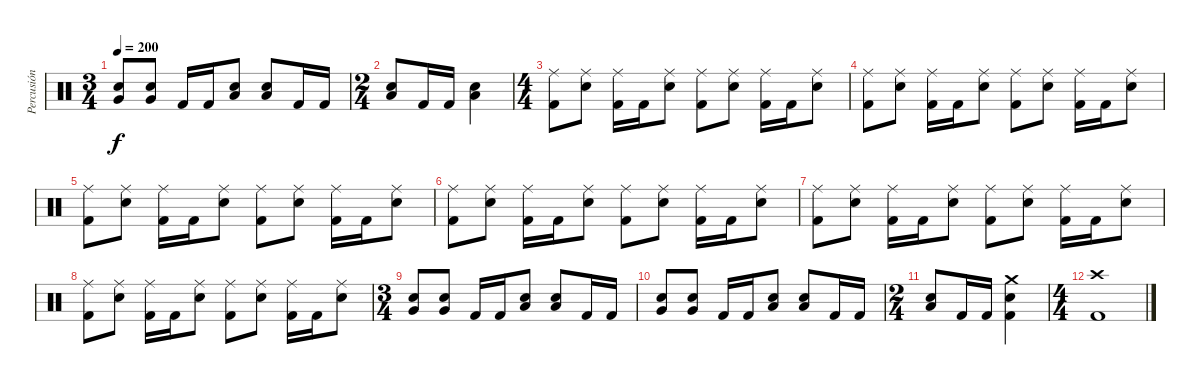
\track ("Percusión" "Percusión") {instrument percussion}
\staff {score}
\articulation defaults
\ts (3 4)
\tempo 200
\clef neutral
\ks c
("Very Low Tom (hit)" "Electric Snare (hit)").8{dy f} ("Very Low Tom (hit)" "Electric Snare (hit)").8 "Kick (hit) 2".16 "Kick (hit) 2".16 ("Low Tom (hit)" "Electric Snare (hit)").8 ("Low Tom (hit)" "Electric Snare (hit)").8 "Kick (hit) 2".16 "Kick (hit) 2".16 |
\ts (2 4)
("Low Tom (hit)" "Electric Snare (hit)").8 "Kick (hit) 2".16 "Kick (hit) 2".16 ("Low Tom (hit)" "Electric Snare (hit)").4 |
\ts (4 4)
("Ride (middle)" "Kick (hit) 2").8 ("Ride (middle)" "Electric Snare (hit)").8 ("Ride (middle)" "Kick (hit) 2").16 "Kick (hit) 2".16 ("Ride (middle)" "Electric Snare (hit)").8 ("Ride (middle)" "Kick (hit) 2").8 ("Ride (middle)" "Electric Snare (hit)").8 ("Ride (middle)" "Kick (hit) 2").16 "Kick (hit) 2".16 ("Ride (middle)" "Electric Snare (hit)").8 |
("Ride (middle)" "Kick (hit) 2").8 ("Ride (middle)" "Electric Snare (hit)").8 ("Ride (middle)" "Kick (hit) 2").16 "Kick (hit) 2".16 ("Ride (middle)" "Electric Snare (hit)").8 ("Ride (middle)" "Kick (hit) 2").8 ("Ride (middle)" "Electric Snare (hit)").8 ("Ride (middle)" "Kick (hit) 2").16 "Kick (hit) 2".16 ("Ride (middle)" "Electric Snare (hit)").8 |
("Ride (middle)" "Kick (hit) 2").8 ("Ride (middle)" "Electric Snare (hit)").8 ("Ride (middle)" "Kick (hit) 2").16 "Kick (hit) 2".16 ("Ride (middle)" "Electric Snare (hit)").8 ("Ride (middle)" "Kick (hit) 2").8 ("Ride (middle)" "Electric Snare (hit)").8 ("Ride (middle)" "Kick (hit) 2").16 "Kick (hit) 2".16 ("Ride (middle)" "Electric Snare (hit)").8 |
("Ride (middle)" "Kick (hit) 2").8 ("Ride (middle)" "Electric Snare (hit)").8 ("Ride (middle)" "Kick (hit) 2").16 "Kick (hit) 2".16 ("Ride (middle)" "Electric Snare (hit)").8 ("Ride (middle)" "Kick (hit) 2").8 ("Ride (middle)" "Electric Snare (hit)").8 ("Ride (middle)" "Kick (hit) 2").16 "Kick (hit) 2".16 ("Ride (middle)" "Electric Snare (hit)").8 |
("Ride (middle)" "Kick (hit) 2").8 ("Ride (middle)" "Electric Snare (hit)").8 ("Ride (middle)" "Kick (hit) 2").16 "Kick (hit) 2".16 ("Ride (middle)" "Electric Snare (hit)").8 ("Ride (middle)" "Kick (hit) 2").8 ("Ride (middle)" "Electric Snare (hit)").8 ("Ride (middle)" "Kick (hit) 2").16 "Kick (hit) 2".16 ("Ride (middle)" "Electric Snare (hit)").8 |
("Ride (middle)" "Kick (hit) 2").8 ("Ride (middle)" "Electric Snare (hit)").8 ("Ride (middle)" "Kick (hit) 2").16 "Kick (hit) 2".16 ("Ride (middle)" "Electric Snare (hit)").8 ("Ride (middle)" "Kick (hit) 2").8 ("Ride (middle)" "Electric Snare (hit)").8 ("Ride (middle)" "Kick (hit) 2").16 "Kick (hit) 2".16 ("Ride (middle)" "Electric Snare (hit)").8 |
\ts (3 4)
("Very Low Tom (hit)" "Electric Snare (hit)").8 ("Very Low Tom (hit)" "Electric Snare (hit)").8 "Kick (hit) 2".16 "Kick (hit) 2".16 ("Low Tom (hit)" "Electric Snare (hit)").8 ("Low Tom (hit)" "Electric Snare (hit)").8 "Kick (hit) 2".16 "Kick (hit) 2".16 |
("Very Low Tom (hit)" "Electric Snare (hit)").8 ("Very Low Tom (hit)" "Electric Snare (hit)").8 "Kick (hit) 2".16 "Kick (hit) 2".16 ("Low Tom (hit)" "Electric Snare (hit)").8 ("Low Tom (hit)" "Electric Snare (hit)").8 "Kick (hit) 2".16 "Kick (hit) 2".16 |
\ts (2 4)
("Low Tom (hit)" "Electric Snare (hit)").8 "Kick (hit) 2".16 "Kick (hit) 2".16 ("Crash medium (hit)" "Electric Snare (hit)" "Kick (hit) 2").4 |
\ts (4 4)
("Crash high (hit)" "Kick (hit) 2").1
